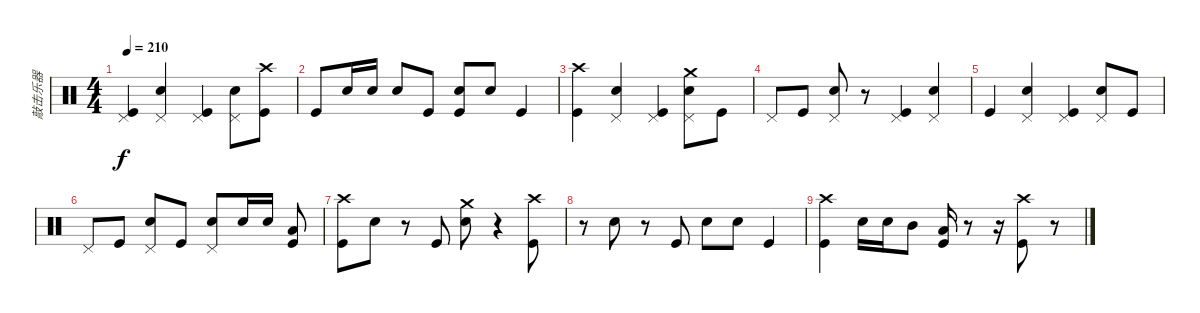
\track ("敲击乐器" "敲击乐器") {instrument percussion}
\staff {score}
\articulation defaults
\ts (4 4)
\tempo 210
\clef neutral
\ks c
("Pedal Hi-Hat (hit)" "Kick (hit)").4{dy f} ("Pedal Hi-Hat (hit)" "Snare (hit) 2").4 ("Pedal Hi-Hat (hit)" "Kick (hit)").4 ("Pedal Hi-Hat (hit)" "Snare (hit) 2").8 ("Crash high (hit)" "Kick (hit)").8 |
"Kick (hit)".8 "Snare (hit) 2".16 "Snare (hit) 2".16 "Snare (hit) 2".8 "Kick (hit)".8 ("Snare (hit) 2" "Kick (hit)").8 "Snare (hit) 2".8 "Kick (hit)".4 |
("Crash high (hit)" "Kick (hit)").4 ("Pedal Hi-Hat (hit)" "Snare (hit) 2").4 ("Pedal Hi-Hat (hit)" "Kick (hit)").4 ("Pedal Hi-Hat (hit)" "Crash medium (hit)" "Snare (hit) 2").8 "Kick (hit)".8 |
"Pedal Hi-Hat (hit)".8 "Kick (hit)".8 ("Pedal Hi-Hat (hit)" "Snare (hit) 2").8 r.8 ("Kick (hit)" "Pedal Hi-Hat (hit)").4 ("Snare (hit) 2" "Pedal Hi-Hat (hit)").4 |
"Kick (hit)".4 ("Pedal Hi-Hat (hit)" "Snare (hit) 2").4 ("Pedal Hi-Hat (hit)" "Kick (hit)").4 ("Pedal Hi-Hat (hit)" "Snare (hit) 2").8 "Kick (hit)".8 |
"Pedal Hi-Hat (hit)".8 "Kick (hit)".8 ("Pedal Hi-Hat (hit)" "Snare (hit) 2").8 "Kick (hit)".8 ("Pedal Hi-Hat (hit)" "Snare (hit) 2").8 "Snare (hit) 2".16 "Snare (hit) 2".16 ("Kick (hit)" "Low Tom (hit)").8 |
("Crash high (hit)" "Kick (hit)").8 "Snare (hit) 2".8 r.8 "Kick (hit)".8 ("Crash medium (hit)" "Snare (hit) 2").8 r.4 ("Crash high (hit)" "Kick (hit)").8 |
r.8 "Snare (hit) 2".8 r.8 "Kick (hit)".8 "Snare (hit) 2".8 "Snare (hit) 2".8 "Kick (hit)".4 |
("Kick (hit)" "Crash high (hit)").4 "Snare (hit) 2".16 "Snare (hit) 2".16 "Mid Tom (hit)".8 ("Kick (hit)" "Low Tom (hit)").16 r.8 r.16 ("Crash high (hit)" "Kick (hit)").8 r.8
